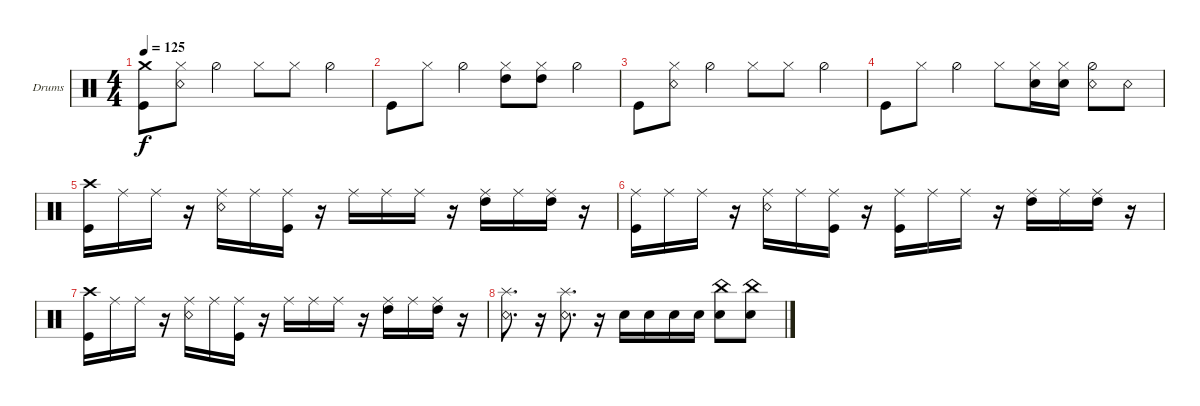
\bracketExtendMode groupsimilarinstruments
\firstSystemTrackNameOrientation horizontal
\otherSystemsTrackNameOrientation horizontal
\track ("Drumkit" "Drums") {instrument percussion}
\staff {score}
\articulation defaults
\ts (4 4)
\tempo 125
\clef neutral
\ks c
("Kick (hit)" "Crash medium (hit)").8{dy f} ("Hi-Hat (closed)" "Snare (rim shot)").8 "Hi-Hat (half)".4 "Hi-Hat (closed)".8 "Hi-Hat (closed)".8 "Hi-Hat (half)".4 |
"Kick (hit)".8 "Hi-Hat (closed)".8 "Hi-Hat (half)".4 ("Hi-Hat (closed)" "High Tom (hit)").8 ("Hi-Hat (closed)" "High Tom (hit)").8 "Hi-Hat (half)".4 |
"Kick (hit)".8 ("Hi-Hat (closed)" "Snare (rim shot)").8 "Hi-Hat (half)".4 "Hi-Hat (closed)".8 "Hi-Hat (closed)".8 "Hi-Hat (half)".4 |
"Kick (hit)".8 "Hi-Hat (closed)".8 "Hi-Hat (half)".4 "Hi-Hat (closed)".8 ("Hi-Hat (closed)" "Snare (hit) 2").16 ("Hi-Hat (closed)" "Snare (hit) 2").16 ("Hi-Hat (half)" "Snare (rim shot)").8 "Snare (rim shot)".8 |
("Kick (hit)" "Crash high (hit)").16 "Ride (middle)".16 "Ride (middle)".16 r.16 ("Ride (middle)" "Snare (rim shot)").16 "Ride (middle)".16 ("Ride (middle)" "Kick (hit)").16 r.16 "Ride (middle)".16 "Ride (middle)".16 "Ride (middle)".16 r.16 ("Ride (middle)" "High Tom (hit)").16 "Ride (middle)".16 ("Ride (middle)" "High Tom (hit)").16 r.16 |
("Kick (hit)" "Ride (middle)").16 "Ride (middle)".16 "Ride (middle)".16 r.16 ("Ride (middle)" "Snare (rim shot)").16 "Ride (middle)".16 ("Ride (middle)" "Kick (hit)").16 r.16 ("Ride (middle)" "Kick (hit)").16 "Ride (middle)".16 "Ride (middle)".16 r.16 ("Ride (middle)" "High Tom (hit)").16 "Ride (middle)".16 ("Ride (middle)" "High Tom (hit)").16 r.16 |
("Kick (hit)" "Crash high (hit)").16 "Ride (middle)".16 "Ride (middle)".16 r.16 ("Ride (middle)" "Snare (rim shot)").16 "Ride (middle)".16 ("Ride (middle)" "Kick (hit)").16 r.16 "Ride (middle)".16 "Ride (middle)".16 "Ride (middle)".16 r.16 ("Ride (middle)" "High Tom (hit)").16 "Ride (middle)".16 ("Ride (middle)" "High Tom (hit)").16 r.16 |
("Snare (rim shot)" "Splash (hit)").8{d} r.16 ("Snare (rim shot)" "Splash (hit)").8{d} r.16 "Snare (hit) 2".16 "Snare (hit) 2".16 "Snare (hit) 2".16 "Snare (hit) 2".16 ("Snare (hit) 2" "China (hit)").8 ("Snare (hit) 2" "China (hit)").8
